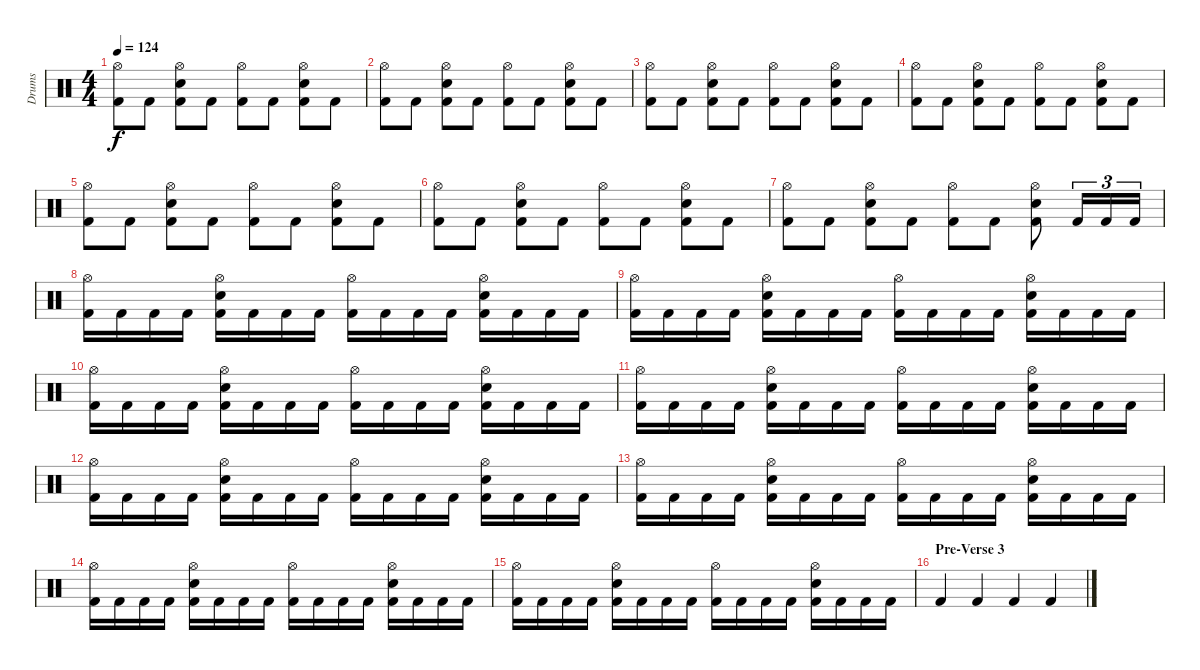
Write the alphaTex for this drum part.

\track ("Drums" "Drums") {instrument percussion}
\staff {score}
\articulation defaults
\ts (4 4)
\tempo 124
\clef neutral
\ks c
("Hi-Hat (open)" "Kick (hit) 2").8{dy f} "Kick (hit) 2".8 ("Hi-Hat (open)" "Electric Snare (hit)" "Kick (hit) 2").8 "Kick (hit) 2".8 ("Hi-Hat (open)" "Kick (hit) 2").8 "Kick (hit) 2".8 ("Hi-Hat (open)" "Electric Snare (hit)" "Kick (hit) 2").8 "Kick (hit) 2".8 |
("Hi-Hat (open)" "Kick (hit) 2").8 "Kick (hit) 2".8 ("Hi-Hat (open)" "Electric Snare (hit)" "Kick (hit) 2").8 "Kick (hit) 2".8 ("Hi-Hat (open)" "Kick (hit) 2").8 "Kick (hit) 2".8 ("Hi-Hat (open)" "Electric Snare (hit)" "Kick (hit) 2").8 "Kick (hit) 2".8 |
("Hi-Hat (open)" "Kick (hit) 2").8 "Kick (hit) 2".8 ("Hi-Hat (open)" "Electric Snare (hit)" "Kick (hit) 2").8 "Kick (hit) 2".8 ("Hi-Hat (open)" "Kick (hit) 2").8 "Kick (hit) 2".8 ("Hi-Hat (open)" "Electric Snare (hit)" "Kick (hit) 2").8 "Kick (hit) 2".8 |
("Hi-Hat (open)" "Kick (hit) 2").8 "Kick (hit) 2".8 ("Hi-Hat (open)" "Electric Snare (hit)" "Kick (hit) 2").8 "Kick (hit) 2".8 ("Hi-Hat (open)" "Kick (hit) 2").8 "Kick (hit) 2".8 ("Hi-Hat (open)" "Electric Snare (hit)" "Kick (hit) 2").8 "Kick (hit) 2".8 |
("Hi-Hat (open)" "Kick (hit) 2").8 "Kick (hit) 2".8 ("Hi-Hat (open)" "Electric Snare (hit)" "Kick (hit) 2").8 "Kick (hit) 2".8 ("Hi-Hat (open)" "Kick (hit) 2").8 "Kick (hit) 2".8 ("Hi-Hat (open)" "Electric Snare (hit)" "Kick (hit) 2").8 "Kick (hit) 2".8 |
("Hi-Hat (open)" "Kick (hit) 2").8 "Kick (hit) 2".8 ("Hi-Hat (open)" "Electric Snare (hit)" "Kick (hit) 2").8 "Kick (hit) 2".8 ("Hi-Hat (open)" "Kick (hit) 2").8 "Kick (hit) 2".8 ("Hi-Hat (open)" "Electric Snare (hit)" "Kick (hit) 2").8 "Kick (hit) 2".8 |
("Hi-Hat (open)" "Kick (hit) 2").8 "Kick (hit) 2".8 ("Hi-Hat (open)" "Electric Snare (hit)" "Kick (hit) 2").8 "Kick (hit) 2".8 ("Hi-Hat (open)" "Kick (hit) 2").8 "Kick (hit) 2".8 ("Hi-Hat (open)" "Electric Snare (hit)" "Kick (hit) 2").8 "Kick (hit) 2".16{tu (3 2)} "Kick (hit) 2".16{tu (3 2)} "Kick (hit) 2".16{tu (3 2)} |
("Hi-Hat (open)" "Kick (hit) 2").16 "Kick (hit) 2".16 "Kick (hit) 2".16 "Kick (hit) 2".16 ("Hi-Hat (open)" "Electric Snare (hit)" "Kick (hit) 2").16 "Kick (hit) 2".16 "Kick (hit) 2".16 "Kick (hit) 2".16 ("Hi-Hat (open)" "Kick (hit) 2").16 "Kick (hit) 2".16 "Kick (hit) 2".16 "Kick (hit) 2".16 ("Hi-Hat (open)" "Electric Snare (hit)" "Kick (hit) 2").16 "Kick (hit) 2".16 "Kick (hit) 2".16 "Kick (hit) 2".16 |
("Hi-Hat (open)" "Kick (hit) 2").16 "Kick (hit) 2".16 "Kick (hit) 2".16 "Kick (hit) 2".16 ("Hi-Hat (open)" "Electric Snare (hit)" "Kick (hit) 2").16 "Kick (hit) 2".16 "Kick (hit) 2".16 "Kick (hit) 2".16 ("Hi-Hat (open)" "Kick (hit) 2").16 "Kick (hit) 2".16 "Kick (hit) 2".16 "Kick (hit) 2".16 ("Hi-Hat (open)" "Electric Snare (hit)" "Kick (hit) 2").16 "Kick (hit) 2".16 "Kick (hit) 2".16 "Kick (hit) 2".16 |
("Hi-Hat (open)" "Kick (hit) 2").16 "Kick (hit) 2".16 "Kick (hit) 2".16 "Kick (hit) 2".16 ("Hi-Hat (open)" "Electric Snare (hit)" "Kick (hit) 2").16 "Kick (hit) 2".16 "Kick (hit) 2".16 "Kick (hit) 2".16 ("Hi-Hat (open)" "Kick (hit) 2").16 "Kick (hit) 2".16 "Kick (hit) 2".16 "Kick (hit) 2".16 ("Hi-Hat (open)" "Electric Snare (hit)" "Kick (hit) 2").16 "Kick (hit) 2".16 "Kick (hit) 2".16 "Kick (hit) 2".16 |
("Hi-Hat (open)" "Kick (hit) 2").16 "Kick (hit) 2".16 "Kick (hit) 2".16 "Kick (hit) 2".16 ("Hi-Hat (open)" "Electric Snare (hit)" "Kick (hit) 2").16 "Kick (hit) 2".16 "Kick (hit) 2".16 "Kick (hit) 2".16 ("Hi-Hat (open)" "Kick (hit) 2").16 "Kick (hit) 2".16 "Kick (hit) 2".16 "Kick (hit) 2".16 ("Hi-Hat (open)" "Electric Snare (hit)" "Kick (hit) 2").16 "Kick (hit) 2".16 "Kick (hit) 2".16 "Kick (hit) 2".16 |
("Hi-Hat (open)" "Kick (hit) 2").16 "Kick (hit) 2".16 "Kick (hit) 2".16 "Kick (hit) 2".16 ("Hi-Hat (open)" "Electric Snare (hit)" "Kick (hit) 2").16 "Kick (hit) 2".16 "Kick (hit) 2".16 "Kick (hit) 2".16 ("Hi-Hat (open)" "Kick (hit) 2").16 "Kick (hit) 2".16 "Kick (hit) 2".16 "Kick (hit) 2".16 ("Hi-Hat (open)" "Electric Snare (hit)" "Kick (hit) 2").16 "Kick (hit) 2".16 "Kick (hit) 2".16 "Kick (hit) 2".16 |
("Hi-Hat (open)" "Kick (hit) 2").16 "Kick (hit) 2".16 "Kick (hit) 2".16 "Kick (hit) 2".16 ("Hi-Hat (open)" "Electric Snare (hit)" "Kick (hit) 2").16 "Kick (hit) 2".16 "Kick (hit) 2".16 "Kick (hit) 2".16 ("Hi-Hat (open)" "Kick (hit) 2").16 "Kick (hit) 2".16 "Kick (hit) 2".16 "Kick (hit) 2".16 ("Hi-Hat (open)" "Electric Snare (hit)" "Kick (hit) 2").16 "Kick (hit) 2".16 "Kick (hit) 2".16 "Kick (hit) 2".16 |
("Hi-Hat (open)" "Kick (hit) 2").16 "Kick (hit) 2".16 "Kick (hit) 2".16 "Kick (hit) 2".16 ("Hi-Hat (open)" "Electric Snare (hit)" "Kick (hit) 2").16 "Kick (hit) 2".16 "Kick (hit) 2".16 "Kick (hit) 2".16 ("Hi-Hat (open)" "Kick (hit) 2").16 "Kick (hit) 2".16 "Kick (hit) 2".16 "Kick (hit) 2".16 ("Hi-Hat (open)" "Electric Snare (hit)" "Kick (hit) 2").16 "Kick (hit) 2".16 "Kick (hit) 2".16 "Kick (hit) 2".16 |
("Hi-Hat (open)" "Kick (hit) 2").16 "Kick (hit) 2".16 "Kick (hit) 2".16 "Kick (hit) 2".16 ("Hi-Hat (open)" "Electric Snare (hit)" "Kick (hit) 2").16 "Kick (hit) 2".16 "Kick (hit) 2".16 "Kick (hit) 2".16 ("Hi-Hat (open)" "Kick (hit) 2").16 "Kick (hit) 2".16 "Kick (hit) 2".16 "Kick (hit) 2".16 ("Hi-Hat (open)" "Electric Snare (hit)" "Kick (hit) 2").16 "Kick (hit) 2".16 "Kick (hit) 2".16 "Kick (hit) 2".16 |
\section ("" "Pre-Verse 3")
"Kick (hit) 2".4 "Kick (hit) 2".4 "Kick (hit) 2".4 "Kick (hit) 2".4
